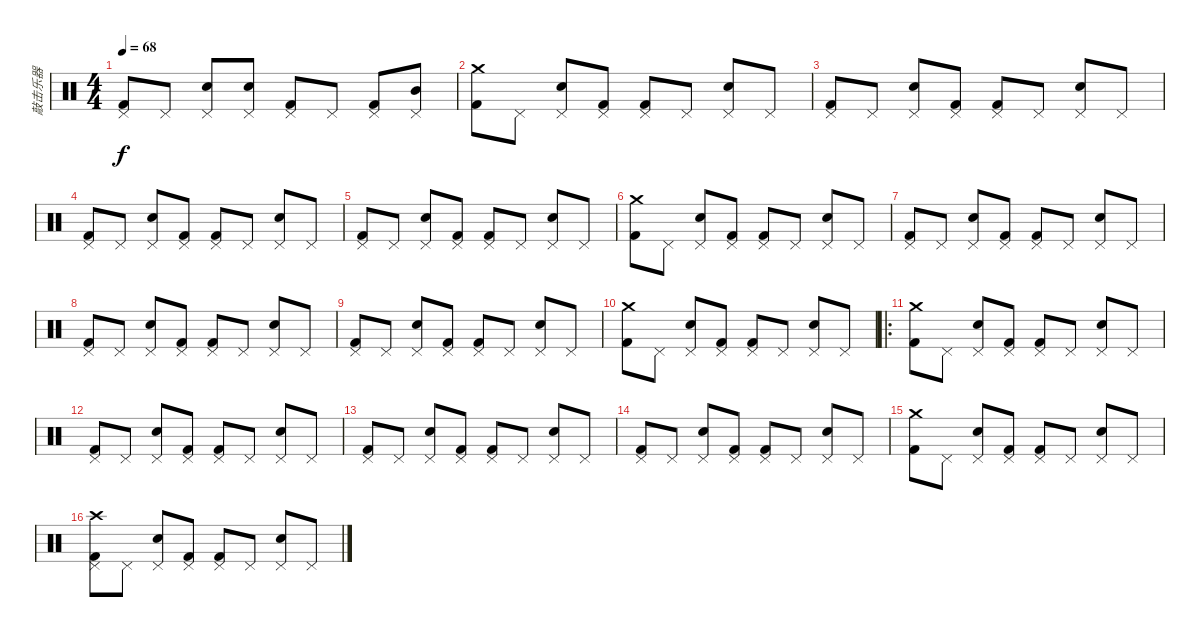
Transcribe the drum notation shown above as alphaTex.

\track ("敲击乐器" "敲击乐器") {instrument percussion}
\staff {score}
\articulation defaults
\ts (4 4)
\tempo 68
\clef neutral
\ks c
("Pedal Hi-Hat (hit)" "Kick (hit) 2").8{dy f} "Pedal Hi-Hat (hit)".8 ("Pedal Hi-Hat (hit)" "Snare (hit) 2").8 ("Pedal Hi-Hat (hit)" "Snare (hit) 2").8 ("Pedal Hi-Hat (hit)" "Kick (hit) 2").8 "Pedal Hi-Hat (hit)".8 ("Pedal Hi-Hat (hit)" "Kick (hit) 2").8 ("Pedal Hi-Hat (hit)" "Mid Tom (hit)").8 |
("Crash medium (hit)" "Kick (hit) 2").8 "Pedal Hi-Hat (hit)".8 ("Pedal Hi-Hat (hit)" "Snare (hit) 2").8 ("Pedal Hi-Hat (hit)" "Kick (hit) 2").8 ("Pedal Hi-Hat (hit)" "Kick (hit) 2").8 "Pedal Hi-Hat (hit)".8 ("Pedal Hi-Hat (hit)" "Snare (hit) 2").8 "Pedal Hi-Hat (hit)".8 |
("Pedal Hi-Hat (hit)" "Kick (hit) 2").8 "Pedal Hi-Hat (hit)".8 ("Pedal Hi-Hat (hit)" "Snare (hit) 2").8 ("Pedal Hi-Hat (hit)" "Kick (hit) 2").8 ("Pedal Hi-Hat (hit)" "Kick (hit) 2").8 "Pedal Hi-Hat (hit)".8 ("Pedal Hi-Hat (hit)" "Snare (hit) 2").8 "Pedal Hi-Hat (hit)".8 |
("Pedal Hi-Hat (hit)" "Kick (hit) 2").8 "Pedal Hi-Hat (hit)".8 ("Pedal Hi-Hat (hit)" "Snare (hit) 2").8 ("Pedal Hi-Hat (hit)" "Kick (hit) 2").8 ("Pedal Hi-Hat (hit)" "Kick (hit) 2").8 "Pedal Hi-Hat (hit)".8 ("Pedal Hi-Hat (hit)" "Snare (hit) 2").8 "Pedal Hi-Hat (hit)".8 |
("Pedal Hi-Hat (hit)" "Kick (hit) 2").8 "Pedal Hi-Hat (hit)".8 ("Pedal Hi-Hat (hit)" "Snare (hit) 2").8 ("Pedal Hi-Hat (hit)" "Kick (hit) 2").8 ("Pedal Hi-Hat (hit)" "Kick (hit) 2").8 "Pedal Hi-Hat (hit)".8 ("Pedal Hi-Hat (hit)" "Snare (hit) 2").8 "Pedal Hi-Hat (hit)".8 |
("Crash medium (hit)" "Kick (hit) 2").8 "Pedal Hi-Hat (hit)".8 ("Pedal Hi-Hat (hit)" "Snare (hit) 2").8 ("Pedal Hi-Hat (hit)" "Kick (hit) 2").8 ("Pedal Hi-Hat (hit)" "Kick (hit) 2").8 "Pedal Hi-Hat (hit)".8 ("Pedal Hi-Hat (hit)" "Snare (hit) 2").8 "Pedal Hi-Hat (hit)".8 |
("Pedal Hi-Hat (hit)" "Kick (hit) 2").8 "Pedal Hi-Hat (hit)".8 ("Pedal Hi-Hat (hit)" "Snare (hit) 2").8 ("Pedal Hi-Hat (hit)" "Kick (hit) 2").8 ("Pedal Hi-Hat (hit)" "Kick (hit) 2").8 "Pedal Hi-Hat (hit)".8 ("Pedal Hi-Hat (hit)" "Snare (hit) 2").8 "Pedal Hi-Hat (hit)".8 |
("Pedal Hi-Hat (hit)" "Kick (hit) 2").8 "Pedal Hi-Hat (hit)".8 ("Pedal Hi-Hat (hit)" "Snare (hit) 2").8 ("Pedal Hi-Hat (hit)" "Kick (hit) 2").8 ("Pedal Hi-Hat (hit)" "Kick (hit) 2").8 "Pedal Hi-Hat (hit)".8 ("Pedal Hi-Hat (hit)" "Snare (hit) 2").8 "Pedal Hi-Hat (hit)".8 |
("Pedal Hi-Hat (hit)" "Kick (hit) 2").8 "Pedal Hi-Hat (hit)".8 ("Pedal Hi-Hat (hit)" "Snare (hit) 2").8 ("Pedal Hi-Hat (hit)" "Kick (hit) 2").8 ("Pedal Hi-Hat (hit)" "Kick (hit) 2").8 "Pedal Hi-Hat (hit)".8 ("Pedal Hi-Hat (hit)" "Snare (hit) 2").8 "Pedal Hi-Hat (hit)".8 |
("Crash medium (hit)" "Kick (hit) 2").8 "Pedal Hi-Hat (hit)".8 ("Pedal Hi-Hat (hit)" "Snare (hit) 2").8 ("Pedal Hi-Hat (hit)" "Kick (hit) 2").8 ("Pedal Hi-Hat (hit)" "Kick (hit) 2").8 "Pedal Hi-Hat (hit)".8 ("Pedal Hi-Hat (hit)" "Snare (hit) 2").8 "Pedal Hi-Hat (hit)".8 |
\ro
("Crash medium (hit)" "Kick (hit) 2").8 "Pedal Hi-Hat (hit)".8 ("Pedal Hi-Hat (hit)" "Snare (hit) 2").8 ("Pedal Hi-Hat (hit)" "Kick (hit) 2").8 ("Pedal Hi-Hat (hit)" "Kick (hit) 2").8 "Pedal Hi-Hat (hit)".8 ("Pedal Hi-Hat (hit)" "Snare (hit) 2").8 "Pedal Hi-Hat (hit)".8 |
("Pedal Hi-Hat (hit)" "Kick (hit) 2").8 "Pedal Hi-Hat (hit)".8 ("Pedal Hi-Hat (hit)" "Snare (hit) 2").8 ("Pedal Hi-Hat (hit)" "Kick (hit) 2").8 ("Pedal Hi-Hat (hit)" "Kick (hit) 2").8 "Pedal Hi-Hat (hit)".8 ("Pedal Hi-Hat (hit)" "Snare (hit) 2").8 "Pedal Hi-Hat (hit)".8 |
("Pedal Hi-Hat (hit)" "Kick (hit) 2").8 "Pedal Hi-Hat (hit)".8 ("Pedal Hi-Hat (hit)" "Snare (hit) 2").8 ("Pedal Hi-Hat (hit)" "Kick (hit) 2").8 ("Pedal Hi-Hat (hit)" "Kick (hit) 2").8 "Pedal Hi-Hat (hit)".8 ("Pedal Hi-Hat (hit)" "Snare (hit) 2").8 "Pedal Hi-Hat (hit)".8 |
("Pedal Hi-Hat (hit)" "Kick (hit) 2").8 "Pedal Hi-Hat (hit)".8 ("Pedal Hi-Hat (hit)" "Snare (hit) 2").8 ("Pedal Hi-Hat (hit)" "Kick (hit) 2").8 ("Pedal Hi-Hat (hit)" "Kick (hit) 2").8 "Pedal Hi-Hat (hit)".8 ("Pedal Hi-Hat (hit)" "Snare (hit) 2").8 "Pedal Hi-Hat (hit)".8 |
("Crash medium (hit)" "Kick (hit) 2").8 "Pedal Hi-Hat (hit)".8 ("Pedal Hi-Hat (hit)" "Snare (hit) 2").8 ("Pedal Hi-Hat (hit)" "Kick (hit) 2").8 ("Pedal Hi-Hat (hit)" "Kick (hit) 2").8 "Pedal Hi-Hat (hit)".8 ("Pedal Hi-Hat (hit)" "Snare (hit) 2").8 "Pedal Hi-Hat (hit)".8 |
("Crash high (hit)" "Pedal Hi-Hat (hit)" "Kick (hit) 2").8 "Pedal Hi-Hat (hit)".8 ("Pedal Hi-Hat (hit)" "Snare (hit) 2").8 ("Pedal Hi-Hat (hit)" "Kick (hit) 2").8 ("Pedal Hi-Hat (hit)" "Kick (hit) 2").8 "Pedal Hi-Hat (hit)".8 ("Pedal Hi-Hat (hit)" "Snare (hit) 2").8 "Pedal Hi-Hat (hit)".8
